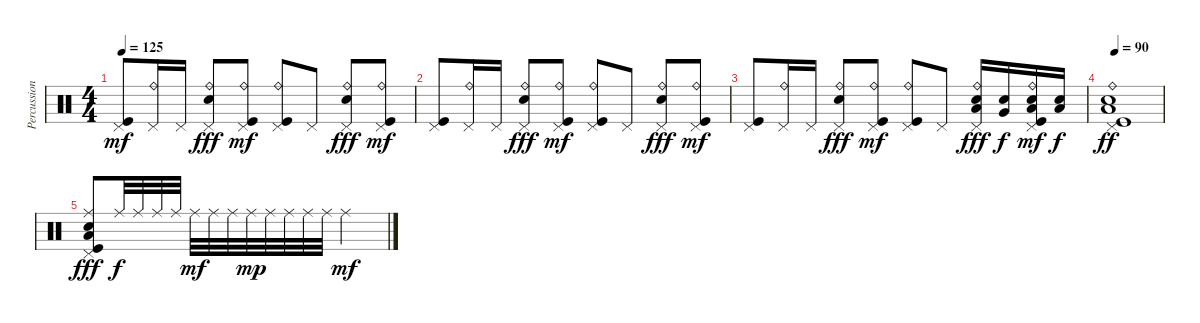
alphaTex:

\track ("Percussion" "Percussion") {instrument percussion}
\staff {score}
\articulation defaults
\ts (4 4)
\tempo 125
\clef neutral
\ks c
("Pedal Hi-Hat (hit)" "Kick (hit)").8{dy mf} ("Ride (bell)" "Pedal Hi-Hat (hit)").16 "Pedal Hi-Hat (hit)".16 ("Ride (bell)" "Pedal Hi-Hat (hit)" "Electric Snare (hit)").8{dy fff} ("Ride (bell)" "Pedal Hi-Hat (hit)" "Kick (hit)").8{dy mf} ("Ride (bell)" "Pedal Hi-Hat (hit)" "Kick (hit)").8 "Pedal Hi-Hat (hit)".8 ("Ride (bell)" "Pedal Hi-Hat (hit)" "Electric Snare (hit)").8{dy fff} ("Ride (bell)" "Pedal Hi-Hat (hit)" "Kick (hit)").8{dy mf} |
("Pedal Hi-Hat (hit)" "Kick (hit)").8 ("Ride (bell)" "Pedal Hi-Hat (hit)").16 "Pedal Hi-Hat (hit)".16 ("Ride (bell)" "Pedal Hi-Hat (hit)" "Electric Snare (hit)").8{dy fff} ("Ride (bell)" "Pedal Hi-Hat (hit)" "Kick (hit)").8{dy mf} ("Ride (bell)" "Pedal Hi-Hat (hit)" "Kick (hit)").8 "Pedal Hi-Hat (hit)".8 ("Ride (bell)" "Pedal Hi-Hat (hit)" "Electric Snare (hit)").8{dy fff} ("Ride (bell)" "Pedal Hi-Hat (hit)" "Kick (hit)").8{dy mf} |
("Pedal Hi-Hat (hit)" "Kick (hit)").8 ("Ride (bell)" "Pedal Hi-Hat (hit)").16 "Pedal Hi-Hat (hit)".16 ("Ride (bell)" "Pedal Hi-Hat (hit)" "Electric Snare (hit)").8{dy fff} ("Ride (bell)" "Pedal Hi-Hat (hit)" "Kick (hit)").8{dy mf} ("Ride (bell)" "Pedal Hi-Hat (hit)" "Kick (hit)").8 "Pedal Hi-Hat (hit)".8 ("Ride (bell)" "Pedal Hi-Hat (hit)" "Low Tom (hit)" "Electric Snare (hit)").16{dy fff} ("Very Low Tom (hit)" "Electric Snare (hit)").16{dy f} ("Ride (bell)" "Pedal Hi-Hat (hit)" "Low Floor Tom (hit)" "Electric Snare (hit)" "Kick (hit)").16{dy mf} ("Low Floor Tom (hit)" "Electric Snare (hit)").16{dy f} |
\tempo 90
("Ride (bell)" "Pedal Hi-Hat (hit)" "Low Floor Tom (hit)" "Electric Snare (hit)" "Kick (hit)").1{dy ff} |
("Ride (middle)" "Pedal Hi-Hat (hit)" "Low Floor Tom (hit)" "Electric Snare (hit)" "Kick (hit)").8{dy fff} "Ride (middle)".32{dy f} "Ride (middle)".32 "Ride (middle)".32 "Ride (middle)".32 "Ride (middle)".32{dy mf} "Ride (middle)".32 "Ride (middle)".32 "Ride (middle)".32{dy mp} "Ride (middle)".32 "Ride (middle)".32 "Ride (middle)".32 "Ride (middle)".32 "Ride (middle)".2{dy mf}
